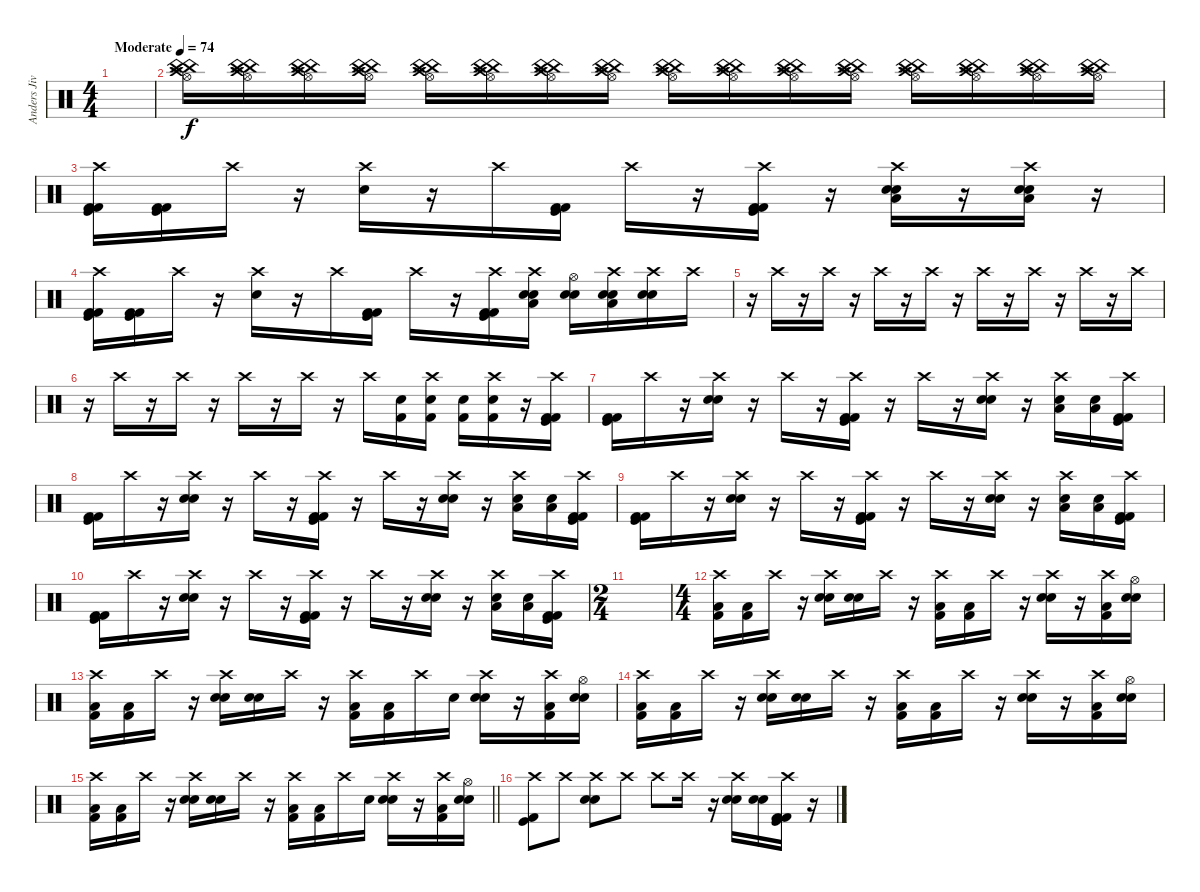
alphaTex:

\track ("Anders Jivarp" "Anders Jiv") {instrument percussion}
\staff {score}
\articulation defaults
\ts (4 4)
\tempo (74 "Moderate")
\clef neutral
\ks c
|
("Crash high (hit)" "Hi-Hat (open)" "China (hit)" "China (hit)").16{volume 16} ("Crash high (hit)" "Hi-Hat (open)" "China (hit)" "China (hit)").16 ("Crash high (hit)" "Hi-Hat (open)" "China (hit)" "China (hit)").16 ("Crash high (hit)" "Hi-Hat (open)" "China (hit)" "China (hit)").16 ("Crash high (hit)" "Hi-Hat (open)" "China (hit)" "China (hit)").16 ("Crash high (hit)" "Hi-Hat (open)" "China (hit)" "China (hit)").16 ("Crash high (hit)" "Hi-Hat (open)" "China (hit)" "China (hit)").16 ("Crash high (hit)" "Hi-Hat (open)" "China (hit)" "China (hit)").16 ("Crash high (hit)" "Hi-Hat (open)" "China (hit)" "China (hit)").16 ("Crash high (hit)" "Hi-Hat (open)" "China (hit)" "China (hit)").16 ("Crash high (hit)" "Hi-Hat (open)" "China (hit)" "China (hit)").16 ("Crash high (hit)" "Hi-Hat (open)" "China (hit)" "China (hit)").16 ("Crash high (hit)" "Hi-Hat (open)" "China (hit)" "China (hit)").16 ("Crash high (hit)" "Hi-Hat (open)" "China (hit)" "China (hit)").16 ("Crash high (hit)" "Hi-Hat (open)" "China (hit)" "China (hit)").16 ("Crash high (hit)" "Hi-Hat (open)" "China (hit)" "China (hit)").16 |
("Crash high (hit)" "Kick (hit)" "Kick (hit) 2" "Kick (hit) 2").16 ("Kick (hit)" "Kick (hit) 2" "Kick (hit) 2").16 "Crash high (hit)".16 r.16 ("Crash high (hit)" "Electric Snare (hit)").16 r.16 "Crash high (hit)".16 ("Kick (hit)" "Kick (hit) 2" "Kick (hit) 2").16 "Crash high (hit)".16 r.16 ("Crash high (hit)" "Kick (hit)" "Kick (hit) 2" "Kick (hit) 2").16 r.16 ("Crash high (hit)" "Electric Snare (hit)" "Snare (hit) 2" "Low Tom (hit)").16 r.16 ("Crash high (hit)" "Electric Snare (hit)" "Snare (hit) 2" "Low Tom (hit)").16 r.16 |
("Crash high (hit)" "Kick (hit)" "Kick (hit) 2" "Kick (hit) 2").16 ("Kick (hit)" "Kick (hit) 2" "Kick (hit) 2").16 "Crash high (hit)".16 r.16 ("Crash high (hit)" "Electric Snare (hit)").16 r.16 "Crash high (hit)".16 ("Kick (hit)" "Kick (hit) 2" "Kick (hit) 2").16 "Crash high (hit)".16 r.16 ("Crash high (hit)" "Kick (hit)" "Kick (hit) 2" "Kick (hit) 2").16 ("Crash high (hit)" "Electric Snare (hit)" "Snare (hit) 2" "Low Tom (hit)").16 ("Hi-Hat (open)" "Electric Snare (hit)" "Snare (hit) 2").16 ("Crash high (hit)" "Electric Snare (hit)" "Snare (hit) 2" "Low Tom (hit)").16 ("Crash high (hit)" "Electric Snare (hit)" "Snare (hit) 2").16 "Crash high (hit)".16 |
r.16 "Crash high (hit)".16 r.16 "Crash high (hit)".16 r.16 "Crash high (hit)".16 r.16 "Crash high (hit)".16 r.16 "Crash high (hit)".16 r.16 "Crash high (hit)".16 r.16 "Crash high (hit)".16 r.16 "Crash high (hit)".16 |
r.16 "Crash high (hit)".16 r.16 "Crash high (hit)".16 r.16 "Crash high (hit)".16 r.16 "Crash high (hit)".16 r.16 "Crash high (hit)".16 ("Electric Snare (hit)" "Kick (hit) 2").16 ("Crash high (hit)" "Electric Snare (hit)" "Kick (hit) 2").16 ("Electric Snare (hit)" "Kick (hit) 2").16 ("Crash high (hit)" "Electric Snare (hit)" "Kick (hit) 2").16 r.16 ("Crash high (hit)" "Kick (hit)" "Kick (hit) 2" "Kick (hit) 2").16 |
("Kick (hit)" "Kick (hit) 2" "Kick (hit) 2").16 "Crash high (hit)".16 r.16 ("Crash high (hit)" "Snare (hit) 2" "Electric Snare (hit)").16 r.16 "Crash high (hit)".16 r.16 ("Crash high (hit)" "Kick (hit) 2" "Kick (hit)" "Kick (hit) 2").16 r.16 "Crash high (hit)".16 r.16 ("Crash high (hit)" "Snare (hit) 2" "Electric Snare (hit)").16 r.16 ("Crash high (hit)" "Electric Snare (hit)" "Low Tom (hit)").16 ("Electric Snare (hit)" "Low Tom (hit)").16 ("Crash high (hit)" "Kick (hit)" "Kick (hit) 2" "Kick (hit) 2").16 |
("Kick (hit)" "Kick (hit) 2" "Kick (hit) 2").16 "Crash high (hit)".16 r.16 ("Crash high (hit)" "Snare (hit) 2" "Electric Snare (hit)").16 r.16 "Crash high (hit)".16 r.16 ("Crash high (hit)" "Kick (hit) 2" "Kick (hit)" "Kick (hit) 2").16 r.16 "Crash high (hit)".16 r.16 ("Crash high (hit)" "Snare (hit) 2" "Electric Snare (hit)").16 r.16 ("Crash high (hit)" "Electric Snare (hit)" "Low Tom (hit)").16 ("Electric Snare (hit)" "Low Tom (hit)").16 ("Crash high (hit)" "Kick (hit)" "Kick (hit) 2" "Kick (hit) 2").16 |
("Kick (hit)" "Kick (hit) 2" "Kick (hit) 2").16 "Crash high (hit)".16 r.16 ("Crash high (hit)" "Snare (hit) 2" "Electric Snare (hit)").16 r.16 "Crash high (hit)".16 r.16 ("Crash high (hit)" "Kick (hit) 2" "Kick (hit)" "Kick (hit) 2").16 r.16 "Crash high (hit)".16 r.16 ("Crash high (hit)" "Snare (hit) 2" "Electric Snare (hit)").16 r.16 ("Crash high (hit)" "Electric Snare (hit)" "Low Tom (hit)").16 ("Electric Snare (hit)" "Low Tom (hit)").16 ("Crash high (hit)" "Kick (hit)" "Kick (hit) 2" "Kick (hit) 2").16 |
("Kick (hit)" "Kick (hit) 2" "Kick (hit) 2").16 "Crash high (hit)".16 r.16 ("Crash high (hit)" "Snare (hit) 2" "Electric Snare (hit)").16 r.16 "Crash high (hit)".16 r.16 ("Crash high (hit)" "Kick (hit) 2" "Kick (hit)" "Kick (hit) 2").16 r.16 "Crash high (hit)".16 r.16 ("Crash high (hit)" "Snare (hit) 2" "Electric Snare (hit)").16 r.16 ("Crash high (hit)" "Electric Snare (hit)" "Low Tom (hit)").16 ("Electric Snare (hit)" "Low Tom (hit)").16 ("Crash high (hit)" "Kick (hit)" "Kick (hit) 2" "Kick (hit) 2").16 |
\ts (2 4)
|
\ts (4 4)
("Crash high (hit)" "Low Tom (hit)" "Kick (hit) 2").16 ("Low Tom (hit)" "Kick (hit) 2").16 "Crash high (hit)".16 r.16 ("Crash high (hit)" "Snare (hit) 2" "Electric Snare (hit)").16 ("Snare (hit) 2" "Electric Snare (hit)").16 "Crash high (hit)".16 r.16 ("Crash high (hit)" "Low Tom (hit)" "Kick (hit) 2").16 ("Low Tom (hit)" "Kick (hit) 2").16 "Crash high (hit)".16 r.16 ("Crash high (hit)" "Snare (hit) 2" "Electric Snare (hit)").16 r.16 ("Crash high (hit)" "Low Tom (hit)" "Kick (hit) 2").16 ("Hi-Hat (open)" "Electric Snare (hit)" "Snare (hit) 2").16 |
("Crash high (hit)" "Low Tom (hit)" "Kick (hit) 2").16 ("Low Tom (hit)" "Kick (hit) 2").16 "Crash high (hit)".16 r.16 ("Crash high (hit)" "Snare (hit) 2" "Electric Snare (hit)").16 ("Snare (hit) 2" "Electric Snare (hit)").16 "Crash high (hit)".16 r.16 ("Crash high (hit)" "Low Tom (hit)" "Kick (hit) 2").16 ("Low Tom (hit)" "Kick (hit) 2").16 "Crash high (hit)".16 "Electric Snare (hit)".16 ("Crash high (hit)" "Snare (hit) 2" "Electric Snare (hit)").16 r.16 ("Crash high (hit)" "Low Tom (hit)" "Kick (hit) 2").16 ("Hi-Hat (open)" "Electric Snare (hit)" "Snare (hit) 2").16 |
("Crash high (hit)" "Low Tom (hit)" "Kick (hit) 2").16 ("Low Tom (hit)" "Kick (hit) 2").16 "Crash high (hit)".16 r.16 ("Crash high (hit)" "Snare (hit) 2" "Electric Snare (hit)").16 ("Snare (hit) 2" "Electric Snare (hit)").16 "Crash high (hit)".16 r.16 ("Crash high (hit)" "Low Tom (hit)" "Kick (hit) 2").16 ("Low Tom (hit)" "Kick (hit) 2").16 "Crash high (hit)".16 r.16 ("Crash high (hit)" "Snare (hit) 2" "Electric Snare (hit)").16 r.16 ("Crash high (hit)" "Low Tom (hit)" "Kick (hit) 2").16 ("Hi-Hat (open)" "Electric Snare (hit)" "Snare (hit) 2").16 |
\barLineRight lightlight
("Crash high (hit)" "Low Tom (hit)" "Kick (hit) 2").16 ("Low Tom (hit)" "Kick (hit) 2").16 "Crash high (hit)".16 r.16 ("Crash high (hit)" "Snare (hit) 2" "Electric Snare (hit)").16 ("Snare (hit) 2" "Electric Snare (hit)").16 "Crash high (hit)".16 r.16 ("Crash high (hit)" "Low Tom (hit)" "Kick (hit) 2").16 ("Low Tom (hit)" "Kick (hit) 2").16 "Crash high (hit)".16 "Electric Snare (hit)".16 ("Crash high (hit)" "Snare (hit) 2" "Electric Snare (hit)").16 r.16 ("Crash high (hit)" "Low Tom (hit)" "Kick (hit) 2").16 ("Hi-Hat (open)" "Electric Snare (hit)" "Snare (hit) 2").16 |
\section ("" "")
("Crash high (hit)" "Kick (hit)" "Kick (hit) 2").8 "Crash high (hit)".8 ("Crash high (hit)" "Snare (hit) 2" "Electric Snare (hit)").8 "Crash high (hit)".8 "Crash high (hit)".8 "Crash high (hit)".16 r.16 ("Crash high (hit)" "Electric Snare (hit)" "Snare (hit) 2").16 ("Electric Snare (hit)" "Snare (hit) 2").16 ("Crash high (hit)" "Kick (hit)" "Kick (hit) 2" "Kick (hit) 2").16 r.16
